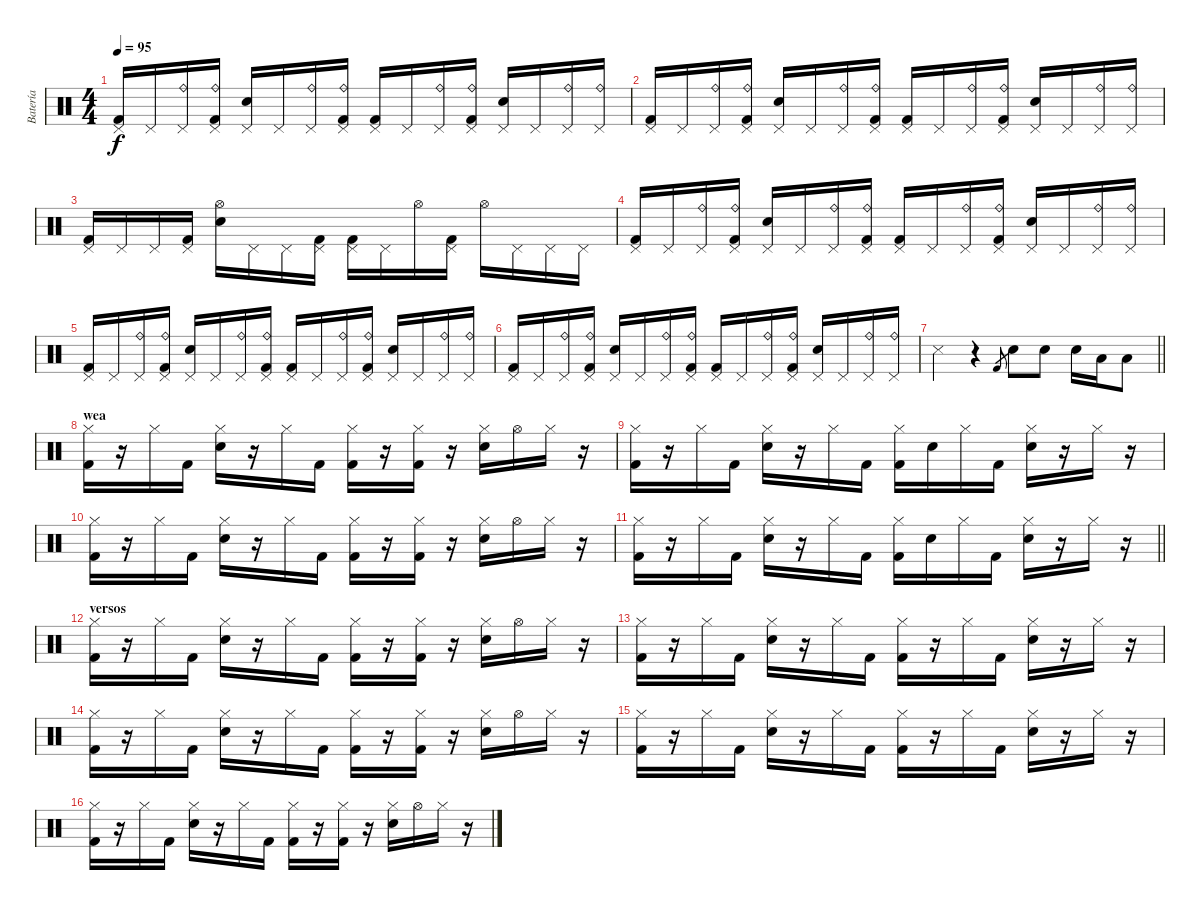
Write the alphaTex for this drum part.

\track ("Batería" "Batería") {instrument percussion}
\staff {score}
\articulation defaults
\ts (4 4)
\tempo 95
\clef neutral
\ks c
("Pedal Hi-Hat (hit)" "Kick (hit) 2").16{dy f} "Pedal Hi-Hat (hit)".16 ("Ride (bell)" "Pedal Hi-Hat (hit)").16 ("Ride (bell)" "Pedal Hi-Hat (hit)" "Kick (hit) 2").16 ("Pedal Hi-Hat (hit)" "Snare (hit) 2").16 "Pedal Hi-Hat (hit)".16 ("Ride (bell)" "Pedal Hi-Hat (hit)").16 ("Ride (bell)" "Pedal Hi-Hat (hit)" "Kick (hit) 2").16 ("Pedal Hi-Hat (hit)" "Kick (hit) 2").16 "Pedal Hi-Hat (hit)".16 ("Ride (bell)" "Pedal Hi-Hat (hit)").16 ("Ride (bell)" "Pedal Hi-Hat (hit)" "Kick (hit) 2").16 ("Pedal Hi-Hat (hit)" "Snare (hit) 2").16 "Pedal Hi-Hat (hit)".16 ("Ride (bell)" "Pedal Hi-Hat (hit)").16 ("Ride (bell)" "Pedal Hi-Hat (hit)").16 |
("Pedal Hi-Hat (hit)" "Kick (hit) 2").16 "Pedal Hi-Hat (hit)".16 ("Ride (bell)" "Pedal Hi-Hat (hit)").16 ("Ride (bell)" "Pedal Hi-Hat (hit)" "Kick (hit) 2").16 ("Pedal Hi-Hat (hit)" "Snare (hit) 2").16 "Pedal Hi-Hat (hit)".16 ("Ride (bell)" "Pedal Hi-Hat (hit)").16 ("Ride (bell)" "Pedal Hi-Hat (hit)" "Kick (hit) 2").16 ("Pedal Hi-Hat (hit)" "Kick (hit) 2").16 "Pedal Hi-Hat (hit)".16 ("Ride (bell)" "Pedal Hi-Hat (hit)").16 ("Ride (bell)" "Pedal Hi-Hat (hit)" "Kick (hit) 2").16 ("Pedal Hi-Hat (hit)" "Snare (hit) 2").16 "Pedal Hi-Hat (hit)".16 ("Ride (bell)" "Pedal Hi-Hat (hit)").16 ("Ride (bell)" "Pedal Hi-Hat (hit)").16 |
("Pedal Hi-Hat (hit)" "Kick (hit) 2").16 "Pedal Hi-Hat (hit)".16 "Pedal Hi-Hat (hit)".16 ("Pedal Hi-Hat (hit)" "Kick (hit) 2").16 ("Hi-Hat (open)" "Snare (hit) 2").16 "Pedal Hi-Hat (hit)".16 "Pedal Hi-Hat (hit)".16 ("Pedal Hi-Hat (hit)" "Kick (hit) 2").16 ("Pedal Hi-Hat (hit)" "Kick (hit) 2").16 "Pedal Hi-Hat (hit)".16 "Hi-Hat (open)".16 ("Pedal Hi-Hat (hit)" "Kick (hit) 2").16 "Hi-Hat (open)".16 "Pedal Hi-Hat (hit)".16 "Pedal Hi-Hat (hit)".16 "Pedal Hi-Hat (hit)".16 |
("Pedal Hi-Hat (hit)" "Kick (hit) 2").16 "Pedal Hi-Hat (hit)".16 ("Ride (bell)" "Pedal Hi-Hat (hit)").16 ("Ride (bell)" "Pedal Hi-Hat (hit)" "Kick (hit) 2").16 ("Pedal Hi-Hat (hit)" "Snare (hit) 2").16 "Pedal Hi-Hat (hit)".16 ("Ride (bell)" "Pedal Hi-Hat (hit)").16 ("Ride (bell)" "Pedal Hi-Hat (hit)" "Kick (hit) 2").16 ("Pedal Hi-Hat (hit)" "Kick (hit) 2").16 "Pedal Hi-Hat (hit)".16 ("Ride (bell)" "Pedal Hi-Hat (hit)").16 ("Ride (bell)" "Pedal Hi-Hat (hit)" "Kick (hit) 2").16 ("Pedal Hi-Hat (hit)" "Snare (hit) 2").16 "Pedal Hi-Hat (hit)".16 ("Ride (bell)" "Pedal Hi-Hat (hit)").16 ("Ride (bell)" "Pedal Hi-Hat (hit)").16 |
("Pedal Hi-Hat (hit)" "Kick (hit) 2").16 "Pedal Hi-Hat (hit)".16 ("Ride (bell)" "Pedal Hi-Hat (hit)").16 ("Ride (bell)" "Pedal Hi-Hat (hit)" "Kick (hit) 2").16 ("Pedal Hi-Hat (hit)" "Snare (hit) 2").16 "Pedal Hi-Hat (hit)".16 ("Ride (bell)" "Pedal Hi-Hat (hit)").16 ("Ride (bell)" "Pedal Hi-Hat (hit)" "Kick (hit) 2").16 ("Pedal Hi-Hat (hit)" "Kick (hit) 2").16 "Pedal Hi-Hat (hit)".16 ("Ride (bell)" "Pedal Hi-Hat (hit)").16 ("Ride (bell)" "Pedal Hi-Hat (hit)" "Kick (hit) 2").16 ("Pedal Hi-Hat (hit)" "Snare (hit) 2").16 "Pedal Hi-Hat (hit)".16 ("Ride (bell)" "Pedal Hi-Hat (hit)").16 ("Ride (bell)" "Pedal Hi-Hat (hit)").16 |
("Pedal Hi-Hat (hit)" "Kick (hit) 2").16 "Pedal Hi-Hat (hit)".16 ("Ride (bell)" "Pedal Hi-Hat (hit)").16 ("Ride (bell)" "Pedal Hi-Hat (hit)" "Kick (hit) 2").16 ("Pedal Hi-Hat (hit)" "Snare (hit) 2").16 "Pedal Hi-Hat (hit)".16 ("Ride (bell)" "Pedal Hi-Hat (hit)").16 ("Ride (bell)" "Pedal Hi-Hat (hit)" "Kick (hit) 2").16 ("Pedal Hi-Hat (hit)" "Kick (hit) 2").16 "Pedal Hi-Hat (hit)".16 ("Ride (bell)" "Pedal Hi-Hat (hit)").16 ("Ride (bell)" "Pedal Hi-Hat (hit)" "Kick (hit) 2").16 ("Pedal Hi-Hat (hit)" "Snare (hit) 2").16 "Pedal Hi-Hat (hit)".16 ("Ride (bell)" "Pedal Hi-Hat (hit)").16 ("Ride (bell)" "Pedal Hi-Hat (hit)").16 |
\barLineRight lightlight "Snare (side stick) 3".4
r.4 "Kick (hit) 2".8{gr} "Snare (hit) 2".8{volume 14} "Snare (hit) 2".8 "Snare (hit) 2".16 "Low Tom (hit)".16 "Low Floor Tom (hit)".8 |
\section ("" "wea")
("Hi-Hat (closed)" "Kick (hit) 2").16 r.16 "Hi-Hat (closed)".16 "Kick (hit) 2".16 ("Hi-Hat (closed)" "Snare (hit) 2").16 r.16 "Hi-Hat (closed)".16 "Kick (hit) 2".16 ("Hi-Hat (closed)" "Kick (hit) 2").16 r.16 ("Hi-Hat (closed)" "Kick (hit) 2").16 r.16 ("Hi-Hat (closed)" "Snare (hit) 2").16 "Hi-Hat (open)".16 "Hi-Hat (closed)".16 r.16 |
("Hi-Hat (closed)" "Kick (hit) 2").16 r.16 "Hi-Hat (closed)".16 "Kick (hit) 2".16 ("Hi-Hat (closed)" "Snare (hit) 2").16 r.16 "Hi-Hat (closed)".16 "Kick (hit) 2".16 ("Hi-Hat (closed)" "Kick (hit) 2").16 "Snare (hit) 2".16 "Hi-Hat (closed)".16 "Kick (hit) 2".16 ("Hi-Hat (closed)" "Snare (hit) 2").16 r.16 "Hi-Hat (closed)".16 r.16 |
("Hi-Hat (closed)" "Kick (hit) 2").16 r.16 "Hi-Hat (closed)".16 "Kick (hit) 2".16 ("Hi-Hat (closed)" "Snare (hit) 2").16 r.16 "Hi-Hat (closed)".16 "Kick (hit) 2".16 ("Hi-Hat (closed)" "Kick (hit) 2").16 r.16 ("Hi-Hat (closed)" "Kick (hit) 2").16 r.16 ("Hi-Hat (closed)" "Snare (hit) 2").16 "Hi-Hat (open)".16 "Hi-Hat (closed)".16 r.16 |
\barLineRight lightlight
("Hi-Hat (closed)" "Kick (hit) 2").16 r.16 "Hi-Hat (closed)".16 "Kick (hit) 2".16 ("Hi-Hat (closed)" "Snare (hit) 2").16 r.16 "Hi-Hat (closed)".16 "Kick (hit) 2".16 ("Hi-Hat (closed)" "Kick (hit) 2").16 "Snare (hit) 2".16 "Hi-Hat (closed)".16 "Kick (hit) 2".16 ("Hi-Hat (closed)" "Snare (hit) 2").16 r.16 "Hi-Hat (closed)".16 r.16 |
\section ("" "versos")
("Hi-Hat (closed)" "Kick (hit) 2").16 r.16 "Hi-Hat (closed)".16 "Kick (hit) 2".16 ("Hi-Hat (closed)" "Snare (hit) 2").16 r.16 "Hi-Hat (closed)".16 "Kick (hit) 2".16 ("Hi-Hat (closed)" "Kick (hit) 2").16 r.16 ("Hi-Hat (closed)" "Kick (hit) 2").16 r.16 ("Hi-Hat (closed)" "Snare (hit) 2").16 "Hi-Hat (open)".16 "Hi-Hat (closed)".16 r.16 |
("Hi-Hat (closed)" "Kick (hit) 2").16 r.16 "Hi-Hat (closed)".16 "Kick (hit) 2".16 ("Hi-Hat (closed)" "Snare (hit) 2").16 r.16 "Hi-Hat (closed)".16 "Kick (hit) 2".16 ("Hi-Hat (closed)" "Kick (hit) 2").16 r.16 "Hi-Hat (closed)".16 "Kick (hit) 2".16 ("Hi-Hat (closed)" "Snare (hit) 2").16 r.16 "Hi-Hat (closed)".16 r.16 |
("Hi-Hat (closed)" "Kick (hit) 2").16 r.16 "Hi-Hat (closed)".16 "Kick (hit) 2".16 ("Hi-Hat (closed)" "Snare (hit) 2").16 r.16 "Hi-Hat (closed)".16 "Kick (hit) 2".16 ("Hi-Hat (closed)" "Kick (hit) 2").16 r.16 ("Hi-Hat (closed)" "Kick (hit) 2").16 r.16 ("Hi-Hat (closed)" "Snare (hit) 2").16 "Hi-Hat (open)".16 "Hi-Hat (closed)".16 r.16 |
("Hi-Hat (closed)" "Kick (hit) 2").16 r.16 "Hi-Hat (closed)".16 "Kick (hit) 2".16 ("Hi-Hat (closed)" "Snare (hit) 2").16 r.16 "Hi-Hat (closed)".16 "Kick (hit) 2".16 ("Hi-Hat (closed)" "Kick (hit) 2").16 r.16 "Hi-Hat (closed)".16 "Kick (hit) 2".16 ("Hi-Hat (closed)" "Snare (hit) 2").16 r.16 "Hi-Hat (closed)".16 r.16 |
("Hi-Hat (closed)" "Kick (hit) 2").16 r.16 "Hi-Hat (closed)".16 "Kick (hit) 2".16 ("Hi-Hat (closed)" "Snare (hit) 2").16 r.16 "Hi-Hat (closed)".16 "Kick (hit) 2".16 ("Hi-Hat (closed)" "Kick (hit) 2").16 r.16 ("Hi-Hat (closed)" "Kick (hit) 2").16 r.16 ("Hi-Hat (closed)" "Snare (hit) 2").16 "Hi-Hat (open)".16 "Hi-Hat (closed)".16 r.16
